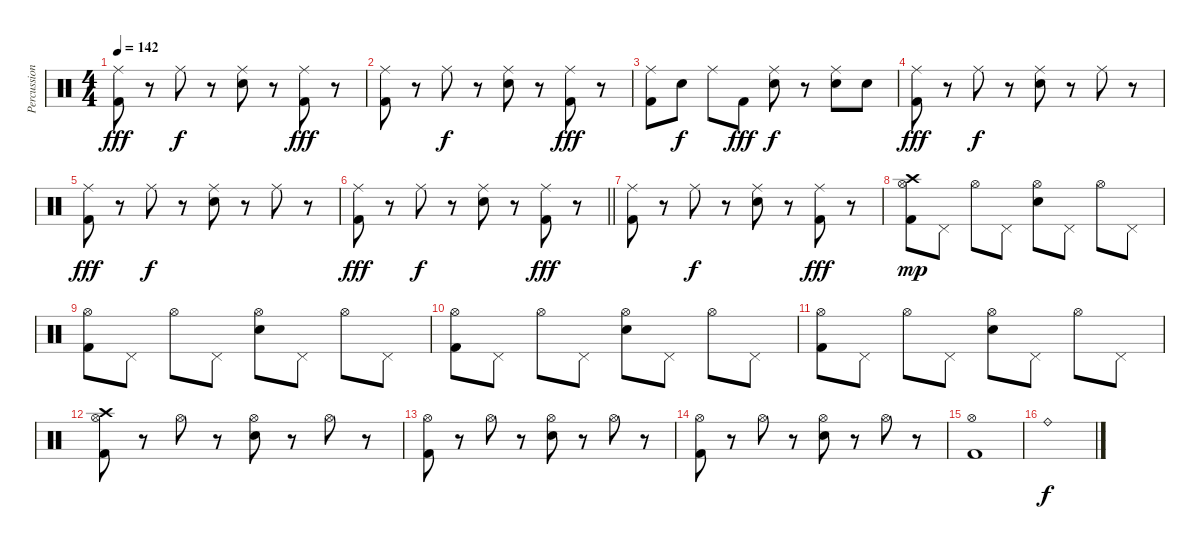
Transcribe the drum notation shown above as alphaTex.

\track ("Percussion" "Percussion") {instrument percussion}
\staff {score}
\articulation defaults
\ts (4 4)
\tempo 142
\clef neutral
\ks c
("Kick (hit) 2" "Ride (middle)").8{dy fff} r.8 "Ride (middle)".8{dy f} r.8 ("Electric Snare (hit)" "Ride (middle)").8 r.8 ("Kick (hit) 2" "Ride (middle)").8{dy fff} r.8 |
("Kick (hit) 2" "Ride (middle)").8 r.8 "Ride (middle)".8{dy f} r.8 ("Electric Snare (hit)" "Ride (middle)").8 r.8 ("Kick (hit) 2" "Ride (middle)").8{dy fff} r.8 |
("Kick (hit) 2" "Ride (middle)").8 "Electric Snare (hit)".8{dy f} "Ride (middle)".8 "Kick (hit) 2".8{dy fff} ("Electric Snare (hit)" "Ride (middle)").8{dy f} r.8 ("Electric Snare (hit)" "Ride (middle)").8 "Electric Snare (hit)".8 |
("Kick (hit) 2" "Ride (middle)").8{dy fff} r.8 "Ride (middle)".8{dy f} r.8 ("Electric Snare (hit)" "Ride (middle)").8 r.8 "Ride (middle)".8 r.8 |
("Kick (hit) 2" "Ride (middle)").8{dy fff} r.8 "Ride (middle)".8{dy f} r.8 ("Electric Snare (hit)" "Ride (middle)").8 r.8 "Ride (middle)".8 r.8 |
\barLineRight lightlight
("Kick (hit) 2" "Ride (middle)").8{dy fff} r.8 "Ride (middle)".8{dy f} r.8 ("Electric Snare (hit)" "Ride (middle)").8 r.8 ("Kick (hit) 2" "Ride (middle)").8{dy fff} r.8 |
("Kick (hit) 2" "Ride (middle)").8 r.8 "Ride (middle)".8{dy f} r.8 ("Electric Snare (hit)" "Ride (middle)").8 r.8 ("Kick (hit) 2" "Ride (middle)").8{dy fff} r.8 |
("Kick (hit) 2" "Hi-Hat (open)" "Crash high (hit)").8{dy mp} "Pedal Hi-Hat (hit)".8 "Hi-Hat (open)".8 "Pedal Hi-Hat (hit)".8 ("Electric Snare (hit)" "Hi-Hat (open)").8 "Pedal Hi-Hat (hit)".8 "Hi-Hat (open)".8 "Pedal Hi-Hat (hit)".8 |
("Kick (hit) 2" "Hi-Hat (open)").8 "Pedal Hi-Hat (hit)".8 "Hi-Hat (open)".8 "Pedal Hi-Hat (hit)".8 ("Electric Snare (hit)" "Hi-Hat (open)").8 "Pedal Hi-Hat (hit)".8 "Hi-Hat (open)".8 "Pedal Hi-Hat (hit)".8 |
("Kick (hit) 2" "Hi-Hat (open)").8 "Pedal Hi-Hat (hit)".8 "Hi-Hat (open)".8 "Pedal Hi-Hat (hit)".8 ("Electric Snare (hit)" "Hi-Hat (open)").8 "Pedal Hi-Hat (hit)".8 "Hi-Hat (open)".8 "Pedal Hi-Hat (hit)".8 |
("Kick (hit) 2" "Hi-Hat (open)").8 "Pedal Hi-Hat (hit)".8 "Hi-Hat (open)".8 "Pedal Hi-Hat (hit)".8 ("Electric Snare (hit)" "Hi-Hat (open)").8 "Pedal Hi-Hat (hit)".8 "Hi-Hat (open)".8 "Pedal Hi-Hat (hit)".8 |
("Kick (hit) 2" "Hi-Hat (open)" "Crash high (hit)").8 r.8 "Hi-Hat (open)".8 r.8 ("Electric Snare (hit)" "Hi-Hat (open)").8 r.8 "Hi-Hat (open)".8 r.8 |
("Kick (hit) 2" "Hi-Hat (open)").8 r.8 "Hi-Hat (open)".8 r.8 ("Electric Snare (hit)" "Hi-Hat (open)").8 r.8 "Hi-Hat (open)".8 r.8 |
("Kick (hit) 2" "Hi-Hat (open)").8 r.8 "Hi-Hat (open)".8 r.8 ("Electric Snare (hit)" "Hi-Hat (open)").8 r.8 "Hi-Hat (open)".8 r.8 |
("Kick (hit) 2" "Hi-Hat (open)").1 |
"Ride (bell)".1{dy f}
